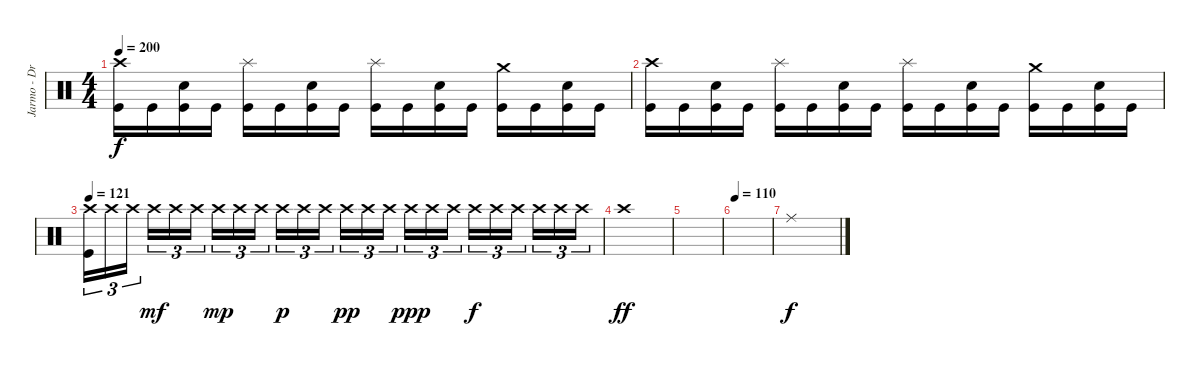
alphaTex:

\track ("Jarmo - Drums" "Jarmo - Dr") {instrument percussion}
\staff {score}
\articulation defaults
\ts (4 4)
\tempo 200
\clef neutral
\ks c
("Kick (hit)" "Crash high (hit)").16{dy f} "Kick (hit)".16 ("Kick (hit)" "Electric Snare (hit)").16 "Kick (hit)".16 ("Kick (hit)" "Splash (hit)").16 "Kick (hit)".16 ("Kick (hit)" "Electric Snare (hit)").16 "Kick (hit)".16 ("Kick (hit)" "Splash (hit)").16 "Kick (hit)".16 ("Kick (hit)" "Electric Snare (hit)").16 "Kick (hit)".16 ("Kick (hit)" "Crash medium (hit)").16 "Kick (hit)".16 ("Kick (hit)" "Electric Snare (hit)").16 "Kick (hit)".16 |
("Kick (hit)" "Crash high (hit)").16 "Kick (hit)".16 ("Kick (hit)" "Electric Snare (hit)").16 "Kick (hit)".16 ("Kick (hit)" "Splash (hit)").16 "Kick (hit)".16 ("Kick (hit)" "Electric Snare (hit)").16 "Kick (hit)".16 ("Kick (hit)" "Splash (hit)").16 "Kick (hit)".16 ("Kick (hit)" "Electric Snare (hit)").16 "Kick (hit)".16 ("Kick (hit)" "Crash medium (hit)").16 "Kick (hit)".16 ("Kick (hit)" "Electric Snare (hit)").16 "Kick (hit)".16 |
\tempo 121
("Kick (hit)" "Crash high (hit)").16{tu (3 2)} "Crash high (hit)".16{tu (3 2)} "Crash high (hit)".16{tu (3 2)} "Crash high (hit)".16{tu (3 2) dy mf} "Crash high (hit)".16{tu (3 2)} "Crash high (hit)".16{tu (3 2)} "Crash high (hit)".16{tu (3 2) dy mp} "Crash high (hit)".16{tu (3 2)} "Crash high (hit)".16{tu (3 2)} "Crash high (hit)".16{tu (3 2) dy p} "Crash high (hit)".16{tu (3 2)} "Crash high (hit)".16{tu (3 2)} "Crash high (hit)".16{tu (3 2) dy pp} "Crash high (hit)".16{tu (3 2)} "Crash high (hit)".16{tu (3 2)} "Crash high (hit)".16{tu (3 2) dy ppp} "Crash high (hit)".16{tu (3 2)} "Crash high (hit)".16{tu (3 2)} "Crash high (hit)".16{tu (3 2) dy f} "Crash high (hit)".16{tu (3 2)} "Crash high (hit)".16{tu (3 2)} "Crash high (hit)".16{tu (3 2)} "Crash high (hit)".16{tu (3 2)} "Crash high (hit)".16{tu (3 2)} |
"Crash high (hit)".1{dy ff} |
|
\tempo 110
|
"Ride (middle)".1{dy f}
